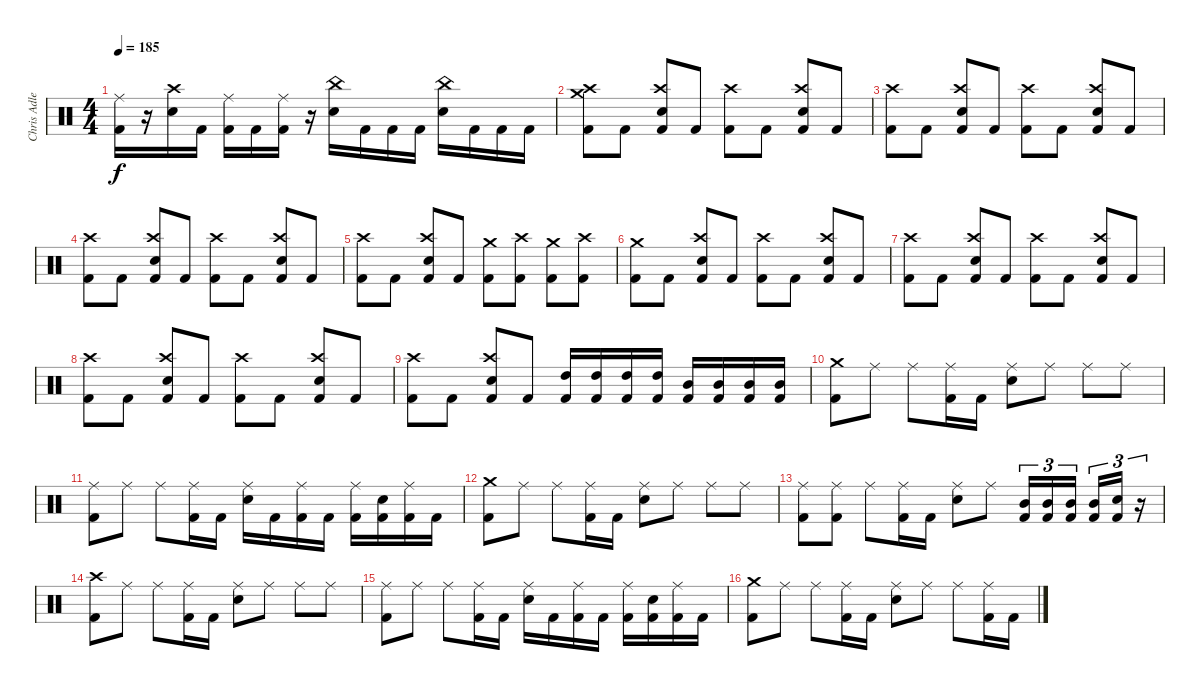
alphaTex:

\track ("Chris Adler" "Chris Adle") {instrument percussion}
\staff {score}
\articulation defaults
\ts (4 4)
\tempo 185
\clef neutral
\ks c
("Ride (middle)" "Kick (hit) 2").16{dy f} r.16 ("Crash high (hit)" "Electric Snare (hit)").16 "Kick (hit) 2".16 ("Ride (middle)" "Kick (hit) 2").16 "Kick (hit) 2".16 ("Ride (middle)" "Kick (hit) 2").16 r.16 ("China (hit)" "Electric Snare (hit)").16 "Kick (hit) 2".16 "Kick (hit) 2".16 "Kick (hit) 2".16 ("China (hit)" "Electric Snare (hit)").16 "Kick (hit) 2".16 "Kick (hit) 2".16 "Kick (hit) 2".16 |
("Crash high (hit)" "Crash medium (hit)" "Kick (hit) 2").8 "Kick (hit) 2".8 ("Crash high (hit)" "Electric Snare (hit)" "Kick (hit) 2").8 "Kick (hit) 2".8 ("Crash high (hit)" "Kick (hit) 2").8 "Kick (hit) 2".8 ("Crash high (hit)" "Electric Snare (hit)" "Kick (hit) 2").8 "Kick (hit) 2".8 |
("Crash high (hit)" "Kick (hit) 2").8 "Kick (hit) 2".8 ("Crash high (hit)" "Electric Snare (hit)" "Kick (hit) 2").8 "Kick (hit) 2".8 ("Crash high (hit)" "Kick (hit) 2").8 "Kick (hit) 2".8 ("Crash high (hit)" "Electric Snare (hit)" "Kick (hit) 2").8 "Kick (hit) 2".8 |
("Crash high (hit)" "Kick (hit) 2").8 "Kick (hit) 2".8 ("Crash high (hit)" "Electric Snare (hit)" "Kick (hit) 2").8 "Kick (hit) 2".8 ("Crash high (hit)" "Kick (hit) 2").8 "Kick (hit) 2".8 ("Crash high (hit)" "Electric Snare (hit)" "Kick (hit) 2").8 "Kick (hit) 2".8 |
("Crash high (hit)" "Kick (hit) 2").8 "Kick (hit) 2".8 ("Crash high (hit)" "Electric Snare (hit)" "Kick (hit) 2").8 "Kick (hit) 2".8 ("Crash medium (hit)" "Kick (hit) 2").8 ("Crash high (hit)" "Kick (hit) 2").8 ("Crash medium (hit)" "Kick (hit) 2").8 ("Crash high (hit)" "Kick (hit) 2").8 |
("Crash medium (hit)" "Kick (hit) 2").8 "Kick (hit) 2".8 ("Crash high (hit)" "Electric Snare (hit)" "Kick (hit) 2").8 "Kick (hit) 2".8 ("Crash high (hit)" "Kick (hit) 2").8 "Kick (hit) 2".8 ("Crash high (hit)" "Electric Snare (hit)" "Kick (hit) 2").8 "Kick (hit) 2".8 |
("Crash high (hit)" "Kick (hit) 2").8 "Kick (hit) 2".8 ("Crash high (hit)" "Electric Snare (hit)" "Kick (hit) 2").8 "Kick (hit) 2".8 ("Crash high (hit)" "Kick (hit) 2").8 "Kick (hit) 2".8 ("Crash high (hit)" "Electric Snare (hit)" "Kick (hit) 2").8 "Kick (hit) 2".8 |
("Crash high (hit)" "Kick (hit) 2").8 "Kick (hit) 2".8 ("Crash high (hit)" "Electric Snare (hit)" "Kick (hit) 2").8 "Kick (hit) 2".8 ("Crash high (hit)" "Kick (hit) 2").8 "Kick (hit) 2".8 ("Crash high (hit)" "Electric Snare (hit)" "Kick (hit) 2").8 "Kick (hit) 2".8 |
("Crash high (hit)" "Kick (hit) 2").8 "Kick (hit) 2".8 ("Crash high (hit)" "Electric Snare (hit)" "Kick (hit) 2").8 "Kick (hit) 2".8 ("High Tom (hit)" "Kick (hit) 2").16 ("High Tom (hit)" "Kick (hit) 2").16 ("High Tom (hit)" "Kick (hit) 2").16 ("High Tom (hit)" "Kick (hit) 2").16 ("Mid Tom (hit)" "Kick (hit) 2").16 ("Mid Tom (hit)" "Kick (hit) 2").16 ("Mid Tom (hit)" "Kick (hit) 2").16 ("Mid Tom (hit)" "Kick (hit) 2").16 |
("Crash medium (hit)" "Kick (hit) 2").8 "Ride (middle)".8 "Ride (middle)".8 ("Ride (middle)" "Kick (hit) 2").16 "Kick (hit) 2".16 ("Ride (middle)" "Electric Snare (hit)").8 "Ride (middle)".8 "Ride (middle)".8 "Ride (middle)".8 |
("Ride (middle)" "Kick (hit) 2").8 "Ride (middle)".8 "Ride (middle)".8 ("Ride (middle)" "Kick (hit) 2").16 "Kick (hit) 2".16 ("Ride (middle)" "Electric Snare (hit)").16 "Kick (hit) 2".16 ("Ride (middle)" "Kick (hit) 2").16 "Kick (hit) 2".16 ("Ride (middle)" "Kick (hit) 2").16 ("Electric Snare (hit)" "Kick (hit) 2").16 ("Ride (middle)" "Kick (hit) 2").16 "Kick (hit) 2".16 |
("Crash medium (hit)" "Kick (hit) 2").8 "Ride (middle)".8 "Ride (middle)".8 ("Ride (middle)" "Kick (hit) 2").16 "Kick (hit) 2".16 ("Ride (middle)" "Electric Snare (hit)").8 "Ride (middle)".8 "Ride (middle)".8 "Ride (middle)".8 |
("Ride (middle)" "Kick (hit) 2").8 ("Ride (middle)" "Kick (hit) 2").8 "Ride (middle)".8 ("Ride (middle)" "Kick (hit) 2").16 "Kick (hit) 2".16 ("Ride (middle)" "Electric Snare (hit)").8 "Ride (middle)".8 ("Mid Tom (hit)" "Kick (hit) 2").16{tu (3 2)} ("Mid Tom (hit)" "Kick (hit) 2").16{tu (3 2)} ("Mid Tom (hit)" "Kick (hit) 2").16{tu (3 2)} ("Mid Tom (hit)" "Kick (hit) 2").16{tu (3 2)} ("Electric Snare (hit)" "Kick (hit) 2").16{tu (3 2)} r.16{tu (3 2)} |
("Crash high (hit)" "Kick (hit) 2").8 "Ride (middle)".8 "Ride (middle)".8 ("Ride (middle)" "Kick (hit) 2").16 "Kick (hit) 2".16 ("Ride (middle)" "Electric Snare (hit)").8 "Ride (middle)".8 "Ride (middle)".8 "Ride (middle)".8 |
("Ride (middle)" "Kick (hit) 2").8 "Ride (middle)".8 "Ride (middle)".8 ("Ride (middle)" "Kick (hit) 2").16 "Kick (hit) 2".16 ("Ride (middle)" "Electric Snare (hit)").16 "Kick (hit) 2".16 ("Ride (middle)" "Kick (hit) 2").16 "Kick (hit) 2".16 ("Ride (middle)" "Kick (hit) 2").16 ("Electric Snare (hit)" "Kick (hit) 2").16 ("Ride (middle)" "Kick (hit) 2").16 "Kick (hit) 2".16 |
("Crash medium (hit)" "Kick (hit) 2").8 "Ride (middle)".8 "Ride (middle)".8 ("Ride (middle)" "Kick (hit) 2").16 "Kick (hit) 2".16 ("Ride (middle)" "Electric Snare (hit)").8 "Ride (middle)".8 "Ride (middle)".8 ("Ride (middle)" "Kick (hit) 2").16 "Kick (hit) 2".16
